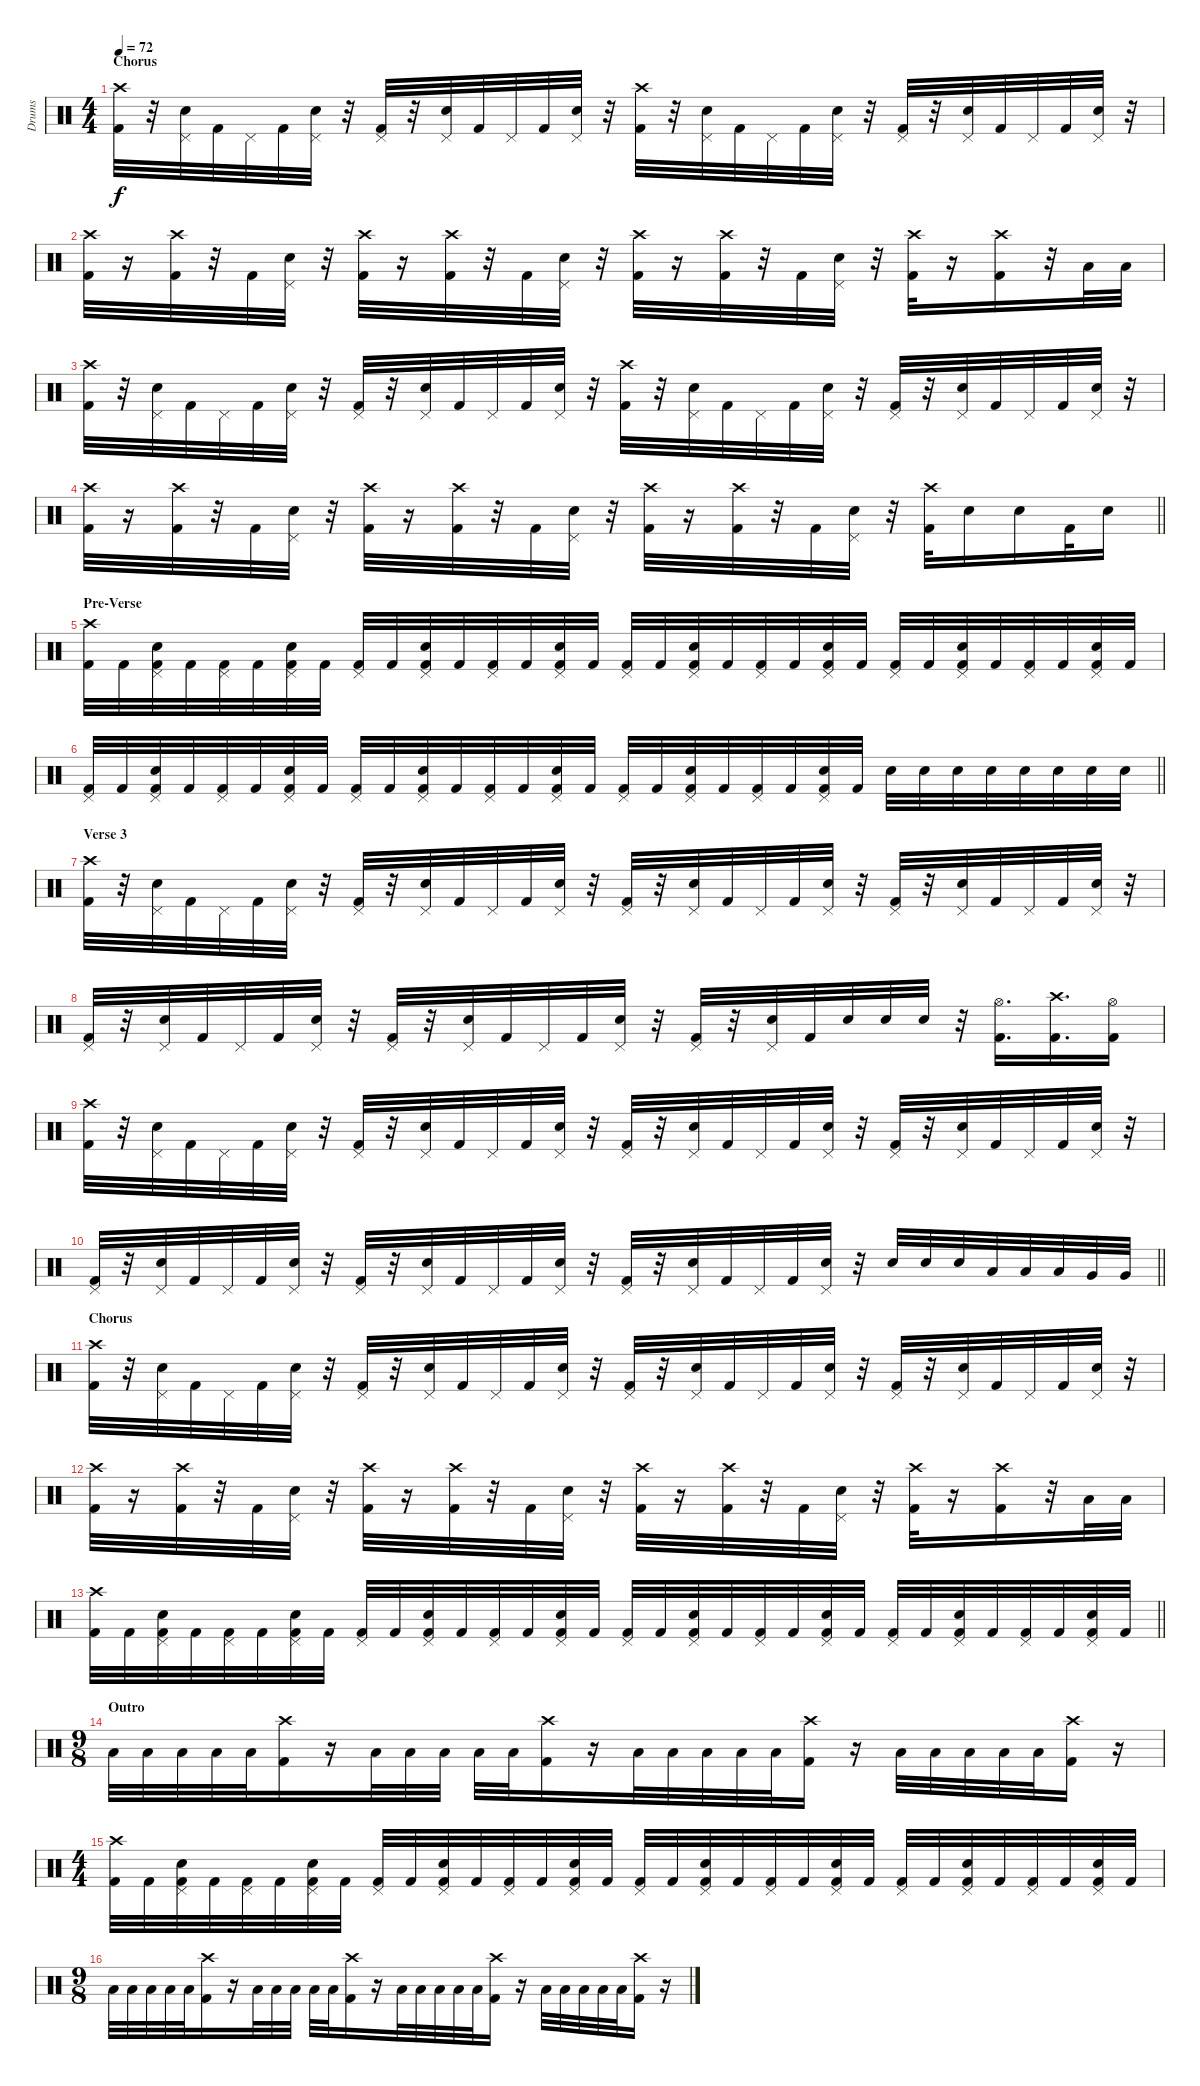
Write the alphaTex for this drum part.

\track ("Drums" "Drums") {instrument percussion}
\staff {score}
\articulation defaults
\ts (4 4)
\section ("" "Chorus")
\tempo 72
\clef neutral
\ks c
("Crash high (hit)" "Kick (hit) 2").32{dy f} r.32 ("Pedal Hi-Hat (hit)" "Snare (hit) 2").32 "Kick (hit) 2".32 "Pedal Hi-Hat (hit)".32 "Kick (hit) 2".32 ("Pedal Hi-Hat (hit)" "Snare (hit) 2").32 r.32 ("Pedal Hi-Hat (hit)" "Kick (hit) 2").32 r.32 ("Pedal Hi-Hat (hit)" "Snare (hit) 2").32 "Kick (hit) 2".32 "Pedal Hi-Hat (hit)".32 "Kick (hit) 2".32 ("Pedal Hi-Hat (hit)" "Snare (hit) 2").32 r.32 ("Crash high (hit)" "Kick (hit) 2").32 r.32 ("Pedal Hi-Hat (hit)" "Snare (hit) 2").32 "Kick (hit) 2".32 "Pedal Hi-Hat (hit)".32 "Kick (hit) 2".32 ("Pedal Hi-Hat (hit)" "Snare (hit) 2").32 r.32 ("Pedal Hi-Hat (hit)" "Kick (hit) 2").32 r.32 ("Pedal Hi-Hat (hit)" "Snare (hit) 2").32 "Kick (hit) 2".32 "Pedal Hi-Hat (hit)".32 "Kick (hit) 2".32 ("Pedal Hi-Hat (hit)" "Snare (hit) 2").32 r.32 |
("Crash high (hit)" "Kick (hit) 2").32 r.16 ("Crash high (hit)" "Kick (hit) 2").32 r.32 "Kick (hit) 2".32 ("Pedal Hi-Hat (hit)" "Snare (hit) 2").32 r.32 ("Crash high (hit)" "Kick (hit) 2").32 r.16 ("Crash high (hit)" "Kick (hit) 2").32 r.32 "Kick (hit) 2".32 ("Pedal Hi-Hat (hit)" "Snare (hit) 2").32 r.32 ("Crash high (hit)" "Kick (hit) 2").32 r.16 ("Crash high (hit)" "Kick (hit) 2").32 r.32 "Kick (hit) 2".32 ("Pedal Hi-Hat (hit)" "Snare (hit) 2").32 r.32 ("Crash high (hit)" "Kick (hit) 2").32 r.16 ("Crash high (hit)" "Kick (hit) 2").16 r.32 "Low Tom (hit)".32 "Low Tom (hit)".32 |
("Crash high (hit)" "Kick (hit) 2").32 r.32 ("Pedal Hi-Hat (hit)" "Snare (hit) 2").32 "Kick (hit) 2".32 "Pedal Hi-Hat (hit)".32 "Kick (hit) 2".32 ("Pedal Hi-Hat (hit)" "Snare (hit) 2").32 r.32 ("Pedal Hi-Hat (hit)" "Kick (hit) 2").32 r.32 ("Pedal Hi-Hat (hit)" "Snare (hit) 2").32 "Kick (hit) 2".32 "Pedal Hi-Hat (hit)".32 "Kick (hit) 2".32 ("Pedal Hi-Hat (hit)" "Snare (hit) 2").32 r.32 ("Crash high (hit)" "Kick (hit) 2").32 r.32 ("Pedal Hi-Hat (hit)" "Snare (hit) 2").32 "Kick (hit) 2".32 "Pedal Hi-Hat (hit)".32 "Kick (hit) 2".32 ("Pedal Hi-Hat (hit)" "Snare (hit) 2").32 r.32 ("Pedal Hi-Hat (hit)" "Kick (hit) 2").32 r.32 ("Pedal Hi-Hat (hit)" "Snare (hit) 2").32 "Kick (hit) 2".32 "Pedal Hi-Hat (hit)".32 "Kick (hit) 2".32 ("Pedal Hi-Hat (hit)" "Snare (hit) 2").32 r.32 |
\barLineRight lightlight
("Crash high (hit)" "Kick (hit) 2").32 r.16 ("Crash high (hit)" "Kick (hit) 2").32 r.32 "Kick (hit) 2".32 ("Pedal Hi-Hat (hit)" "Snare (hit) 2").32 r.32 ("Crash high (hit)" "Kick (hit) 2").32 r.16 ("Crash high (hit)" "Kick (hit) 2").32 r.32 "Kick (hit) 2".32 ("Pedal Hi-Hat (hit)" "Snare (hit) 2").32 r.32 ("Crash high (hit)" "Kick (hit) 2").32 r.16 ("Crash high (hit)" "Kick (hit) 2").32 r.32 "Kick (hit) 2".32 ("Pedal Hi-Hat (hit)" "Snare (hit) 2").32 r.32 ("Crash high (hit)" "Kick (hit) 2").32 "Snare (hit) 2".16 "Snare (hit) 2".16 "Kick (hit) 2".32 "Snare (hit) 2".16 |
\section ("" "Pre-Verse")
("Crash high (hit)" "Kick (hit) 2").32 "Kick (hit) 2".32 ("Pedal Hi-Hat (hit)" "Snare (hit) 2" "Kick (hit) 2").32 "Kick (hit) 2".32 ("Pedal Hi-Hat (hit)" "Kick (hit) 2").32 "Kick (hit) 2".32 ("Pedal Hi-Hat (hit)" "Snare (hit) 2" "Kick (hit) 2").32 "Kick (hit) 2".32 ("Pedal Hi-Hat (hit)" "Kick (hit) 2").32 "Kick (hit) 2".32 ("Pedal Hi-Hat (hit)" "Snare (hit) 2" "Kick (hit) 2").32 "Kick (hit) 2".32 ("Pedal Hi-Hat (hit)" "Kick (hit) 2").32 "Kick (hit) 2".32 ("Pedal Hi-Hat (hit)" "Snare (hit) 2" "Kick (hit) 2").32 "Kick (hit) 2".32 ("Pedal Hi-Hat (hit)" "Kick (hit) 2").32 "Kick (hit) 2".32 ("Pedal Hi-Hat (hit)" "Snare (hit) 2" "Kick (hit) 2").32 "Kick (hit) 2".32 ("Pedal Hi-Hat (hit)" "Kick (hit) 2").32 "Kick (hit) 2".32 ("Pedal Hi-Hat (hit)" "Snare (hit) 2" "Kick (hit) 2").32 "Kick (hit) 2".32 ("Pedal Hi-Hat (hit)" "Kick (hit) 2").32 "Kick (hit) 2".32 ("Pedal Hi-Hat (hit)" "Snare (hit) 2" "Kick (hit) 2").32 "Kick (hit) 2".32 ("Pedal Hi-Hat (hit)" "Kick (hit) 2").32 "Kick (hit) 2".32 ("Pedal Hi-Hat (hit)" "Snare (hit) 2" "Kick (hit) 2").32 "Kick (hit) 2".32 |
\barLineRight lightlight
("Pedal Hi-Hat (hit)" "Kick (hit) 2").32 "Kick (hit) 2".32 ("Pedal Hi-Hat (hit)" "Snare (hit) 2" "Kick (hit) 2").32 "Kick (hit) 2".32 ("Pedal Hi-Hat (hit)" "Kick (hit) 2").32 "Kick (hit) 2".32 ("Pedal Hi-Hat (hit)" "Snare (hit) 2" "Kick (hit) 2").32 "Kick (hit) 2".32 ("Pedal Hi-Hat (hit)" "Kick (hit) 2").32 "Kick (hit) 2".32 ("Pedal Hi-Hat (hit)" "Snare (hit) 2" "Kick (hit) 2").32 "Kick (hit) 2".32 ("Pedal Hi-Hat (hit)" "Kick (hit) 2").32 "Kick (hit) 2".32 ("Pedal Hi-Hat (hit)" "Snare (hit) 2" "Kick (hit) 2").32 "Kick (hit) 2".32 ("Pedal Hi-Hat (hit)" "Kick (hit) 2").32 "Kick (hit) 2".32 ("Pedal Hi-Hat (hit)" "Snare (hit) 2" "Kick (hit) 2").32 "Kick (hit) 2".32 ("Pedal Hi-Hat (hit)" "Kick (hit) 2").32 "Kick (hit) 2".32 ("Pedal Hi-Hat (hit)" "Snare (hit) 2" "Kick (hit) 2").32 "Kick (hit) 2".32 "Snare (hit) 2".32 "Snare (hit) 2".32 "Snare (hit) 2".32 "Snare (hit) 2".32 "Snare (hit) 2".32 "Snare (hit) 2".32 "Snare (hit) 2".32 "Snare (hit) 2".32 |
\section ("" "Verse 3")
("Crash high (hit)" "Kick (hit) 2").32 r.32 ("Pedal Hi-Hat (hit)" "Snare (hit) 2").32 "Kick (hit) 2".32 "Pedal Hi-Hat (hit)".32 "Kick (hit) 2".32 ("Pedal Hi-Hat (hit)" "Snare (hit) 2").32 r.32 ("Pedal Hi-Hat (hit)" "Kick (hit) 2").32 r.32 ("Pedal Hi-Hat (hit)" "Snare (hit) 2").32 "Kick (hit) 2".32 "Pedal Hi-Hat (hit)".32 "Kick (hit) 2".32 ("Pedal Hi-Hat (hit)" "Snare (hit) 2").32 r.32 ("Pedal Hi-Hat (hit)" "Kick (hit) 2").32 r.32 ("Pedal Hi-Hat (hit)" "Snare (hit) 2").32 "Kick (hit) 2".32 "Pedal Hi-Hat (hit)".32 "Kick (hit) 2".32 ("Pedal Hi-Hat (hit)" "Snare (hit) 2").32 r.32 ("Pedal Hi-Hat (hit)" "Kick (hit) 2").32 r.32 ("Pedal Hi-Hat (hit)" "Snare (hit) 2").32 "Kick (hit) 2".32 "Pedal Hi-Hat (hit)".32 "Kick (hit) 2".32 ("Pedal Hi-Hat (hit)" "Snare (hit) 2").32 r.32 |
("Pedal Hi-Hat (hit)" "Kick (hit) 2").32 r.32 ("Pedal Hi-Hat (hit)" "Snare (hit) 2").32 "Kick (hit) 2".32 "Pedal Hi-Hat (hit)".32 "Kick (hit) 2".32 ("Pedal Hi-Hat (hit)" "Snare (hit) 2").32 r.32 ("Pedal Hi-Hat (hit)" "Kick (hit) 2").32 r.32 ("Pedal Hi-Hat (hit)" "Snare (hit) 2").32 "Kick (hit) 2".32 "Pedal Hi-Hat (hit)".32 "Kick (hit) 2".32 ("Pedal Hi-Hat (hit)" "Snare (hit) 2").32 r.32 ("Pedal Hi-Hat (hit)" "Kick (hit) 2").32 r.32 ("Pedal Hi-Hat (hit)" "Snare (hit) 2").32 "Kick (hit) 2".32 "Snare (hit) 2".32 "Snare (hit) 2".32 "Snare (hit) 2".32 r.32 ("Hi-Hat (open)" "Kick (hit) 2").16{d} ("Crash high (hit)" "Kick (hit) 2").16{d} ("Hi-Hat (open)" "Kick (hit) 2").16 |
("Crash high (hit)" "Kick (hit) 2").32 r.32 ("Pedal Hi-Hat (hit)" "Snare (hit) 2").32 "Kick (hit) 2".32 "Pedal Hi-Hat (hit)".32 "Kick (hit) 2".32 ("Pedal Hi-Hat (hit)" "Snare (hit) 2").32 r.32 ("Pedal Hi-Hat (hit)" "Kick (hit) 2").32 r.32 ("Pedal Hi-Hat (hit)" "Snare (hit) 2").32 "Kick (hit) 2".32 "Pedal Hi-Hat (hit)".32 "Kick (hit) 2".32 ("Pedal Hi-Hat (hit)" "Snare (hit) 2").32 r.32 ("Pedal Hi-Hat (hit)" "Kick (hit) 2").32 r.32 ("Pedal Hi-Hat (hit)" "Snare (hit) 2").32 "Kick (hit) 2".32 "Pedal Hi-Hat (hit)".32 "Kick (hit) 2".32 ("Pedal Hi-Hat (hit)" "Snare (hit) 2").32 r.32 ("Pedal Hi-Hat (hit)" "Kick (hit) 2").32 r.32 ("Pedal Hi-Hat (hit)" "Snare (hit) 2").32 "Kick (hit) 2".32 "Pedal Hi-Hat (hit)".32 "Kick (hit) 2".32 ("Pedal Hi-Hat (hit)" "Snare (hit) 2").32 r.32 |
\barLineRight lightlight
("Pedal Hi-Hat (hit)" "Kick (hit) 2").32 r.32 ("Pedal Hi-Hat (hit)" "Snare (hit) 2").32 "Kick (hit) 2".32 "Pedal Hi-Hat (hit)".32 "Kick (hit) 2".32 ("Pedal Hi-Hat (hit)" "Snare (hit) 2").32 r.32 ("Pedal Hi-Hat (hit)" "Kick (hit) 2").32 r.32 ("Pedal Hi-Hat (hit)" "Snare (hit) 2").32 "Kick (hit) 2".32 "Pedal Hi-Hat (hit)".32 "Kick (hit) 2".32 ("Pedal Hi-Hat (hit)" "Snare (hit) 2").32 r.32 ("Pedal Hi-Hat (hit)" "Kick (hit) 2").32 r.32 ("Pedal Hi-Hat (hit)" "Snare (hit) 2").32 "Kick (hit) 2".32 "Pedal Hi-Hat (hit)".32 "Kick (hit) 2".32 ("Pedal Hi-Hat (hit)" "Snare (hit) 2").32 r.32 "Snare (hit) 2".32 "Snare (hit) 2".32 "Snare (hit) 2".32 "Low Tom (hit)".32 "Low Tom (hit)".32 "Low Tom (hit)".32 "Very Low Tom (hit)".32 "Very Low Tom (hit)".32 |
\section ("" "Chorus")
("Crash high (hit)" "Kick (hit) 2").32 r.32 ("Pedal Hi-Hat (hit)" "Snare (hit) 2").32 "Kick (hit) 2".32 "Pedal Hi-Hat (hit)".32 "Kick (hit) 2".32 ("Pedal Hi-Hat (hit)" "Snare (hit) 2").32 r.32 ("Pedal Hi-Hat (hit)" "Kick (hit) 2").32 r.32 ("Pedal Hi-Hat (hit)" "Snare (hit) 2").32 "Kick (hit) 2".32 "Pedal Hi-Hat (hit)".32 "Kick (hit) 2".32 ("Pedal Hi-Hat (hit)" "Snare (hit) 2").32 r.32 ("Pedal Hi-Hat (hit)" "Kick (hit) 2").32 r.32 ("Pedal Hi-Hat (hit)" "Snare (hit) 2").32 "Kick (hit) 2".32 "Pedal Hi-Hat (hit)".32 "Kick (hit) 2".32 ("Pedal Hi-Hat (hit)" "Snare (hit) 2").32 r.32 ("Pedal Hi-Hat (hit)" "Kick (hit) 2").32 r.32 ("Pedal Hi-Hat (hit)" "Snare (hit) 2").32 "Kick (hit) 2".32 "Pedal Hi-Hat (hit)".32 "Kick (hit) 2".32 ("Pedal Hi-Hat (hit)" "Snare (hit) 2").32 r.32 |
("Crash high (hit)" "Kick (hit) 2").32 r.16 ("Crash high (hit)" "Kick (hit) 2").32 r.32 "Kick (hit) 2".32 ("Pedal Hi-Hat (hit)" "Snare (hit) 2").32 r.32 ("Crash high (hit)" "Kick (hit) 2").32 r.16 ("Crash high (hit)" "Kick (hit) 2").32 r.32 "Kick (hit) 2".32 ("Pedal Hi-Hat (hit)" "Snare (hit) 2").32 r.32 ("Crash high (hit)" "Kick (hit) 2").32 r.16 ("Crash high (hit)" "Kick (hit) 2").32 r.32 "Kick (hit) 2".32 ("Pedal Hi-Hat (hit)" "Snare (hit) 2").32 r.32 ("Crash high (hit)" "Kick (hit) 2").32 r.16 ("Crash high (hit)" "Kick (hit) 2").16 r.32 "Low Tom (hit)".32 "Low Tom (hit)".32 |
\barLineRight lightlight
("Crash high (hit)" "Kick (hit) 2").32 "Kick (hit) 2".32 ("Pedal Hi-Hat (hit)" "Snare (hit) 2" "Kick (hit) 2").32 "Kick (hit) 2".32 ("Pedal Hi-Hat (hit)" "Kick (hit) 2").32 "Kick (hit) 2".32 ("Pedal Hi-Hat (hit)" "Snare (hit) 2" "Kick (hit) 2").32 "Kick (hit) 2".32 ("Pedal Hi-Hat (hit)" "Kick (hit) 2").32 "Kick (hit) 2".32 ("Pedal Hi-Hat (hit)" "Snare (hit) 2" "Kick (hit) 2").32 "Kick (hit) 2".32 ("Pedal Hi-Hat (hit)" "Kick (hit) 2").32 "Kick (hit) 2".32 ("Pedal Hi-Hat (hit)" "Snare (hit) 2" "Kick (hit) 2").32 "Kick (hit) 2".32 ("Pedal Hi-Hat (hit)" "Kick (hit) 2").32 "Kick (hit) 2".32 ("Pedal Hi-Hat (hit)" "Snare (hit) 2" "Kick (hit) 2").32 "Kick (hit) 2".32 ("Pedal Hi-Hat (hit)" "Kick (hit) 2").32 "Kick (hit) 2".32 ("Pedal Hi-Hat (hit)" "Snare (hit) 2" "Kick (hit) 2").32 "Kick (hit) 2".32 ("Pedal Hi-Hat (hit)" "Kick (hit) 2").32 "Kick (hit) 2".32 ("Pedal Hi-Hat (hit)" "Snare (hit) 2" "Kick (hit) 2").32 "Kick (hit) 2".32 ("Pedal Hi-Hat (hit)" "Kick (hit) 2").32 "Kick (hit) 2".32 ("Pedal Hi-Hat (hit)" "Snare (hit) 2" "Kick (hit) 2").32 "Kick (hit) 2".32 |
\ts (9 8)
\section ("" "Outro")
"Low Tom (hit)".32 "Low Tom (hit)".32 "Low Tom (hit)".32 "Low Tom (hit)".32 "Low Tom (hit)".32 ("Crash high (hit)" "Kick (hit) 2").16 r.16 "Low Tom (hit)".32 "Low Tom (hit)".32 "Low Tom (hit)".32 "Low Tom (hit)".32 "Low Tom (hit)".32 ("Crash high (hit)" "Kick (hit) 2").16 r.16 "Low Tom (hit)".32 "Low Tom (hit)".32 "Low Tom (hit)".32 "Low Tom (hit)".32 "Low Tom (hit)".32 ("Crash high (hit)" "Kick (hit) 2").16 r.16 "Low Tom (hit)".32 "Low Tom (hit)".32 "Low Tom (hit)".32 "Low Tom (hit)".32 "Low Tom (hit)".32 ("Crash high (hit)" "Kick (hit) 2").16 r.16 |
\ts (4 4)
("Crash high (hit)" "Kick (hit) 2").32 "Kick (hit) 2".32 ("Pedal Hi-Hat (hit)" "Snare (hit) 2" "Kick (hit) 2").32 "Kick (hit) 2".32 ("Pedal Hi-Hat (hit)" "Kick (hit) 2").32 "Kick (hit) 2".32 ("Pedal Hi-Hat (hit)" "Snare (hit) 2" "Kick (hit) 2").32 "Kick (hit) 2".32 ("Pedal Hi-Hat (hit)" "Kick (hit) 2").32 "Kick (hit) 2".32 ("Pedal Hi-Hat (hit)" "Snare (hit) 2" "Kick (hit) 2").32 "Kick (hit) 2".32 ("Pedal Hi-Hat (hit)" "Kick (hit) 2").32 "Kick (hit) 2".32 ("Pedal Hi-Hat (hit)" "Snare (hit) 2" "Kick (hit) 2").32 "Kick (hit) 2".32 ("Pedal Hi-Hat (hit)" "Kick (hit) 2").32 "Kick (hit) 2".32 ("Pedal Hi-Hat (hit)" "Snare (hit) 2" "Kick (hit) 2").32 "Kick (hit) 2".32 ("Pedal Hi-Hat (hit)" "Kick (hit) 2").32 "Kick (hit) 2".32 ("Pedal Hi-Hat (hit)" "Snare (hit) 2" "Kick (hit) 2").32 "Kick (hit) 2".32 ("Pedal Hi-Hat (hit)" "Kick (hit) 2").32 "Kick (hit) 2".32 ("Pedal Hi-Hat (hit)" "Snare (hit) 2" "Kick (hit) 2").32 "Kick (hit) 2".32 ("Pedal Hi-Hat (hit)" "Kick (hit) 2").32 "Kick (hit) 2".32 ("Pedal Hi-Hat (hit)" "Snare (hit) 2" "Kick (hit) 2").32 "Kick (hit) 2".32 |
\ts (9 8)
"Low Tom (hit)".32 "Low Tom (hit)".32 "Low Tom (hit)".32 "Low Tom (hit)".32 "Low Tom (hit)".32 ("Crash high (hit)" "Kick (hit) 2").16 r.16 "Low Tom (hit)".32 "Low Tom (hit)".32 "Low Tom (hit)".32 "Low Tom (hit)".32 "Low Tom (hit)".32 ("Crash high (hit)" "Kick (hit) 2").16 r.16 "Low Tom (hit)".32 "Low Tom (hit)".32 "Low Tom (hit)".32 "Low Tom (hit)".32 "Low Tom (hit)".32 ("Crash high (hit)" "Kick (hit) 2").16 r.16 "Low Tom (hit)".32 "Low Tom (hit)".32 "Low Tom (hit)".32 "Low Tom (hit)".32 "Low Tom (hit)".32 ("Crash high (hit)" "Kick (hit) 2").16 r.16
